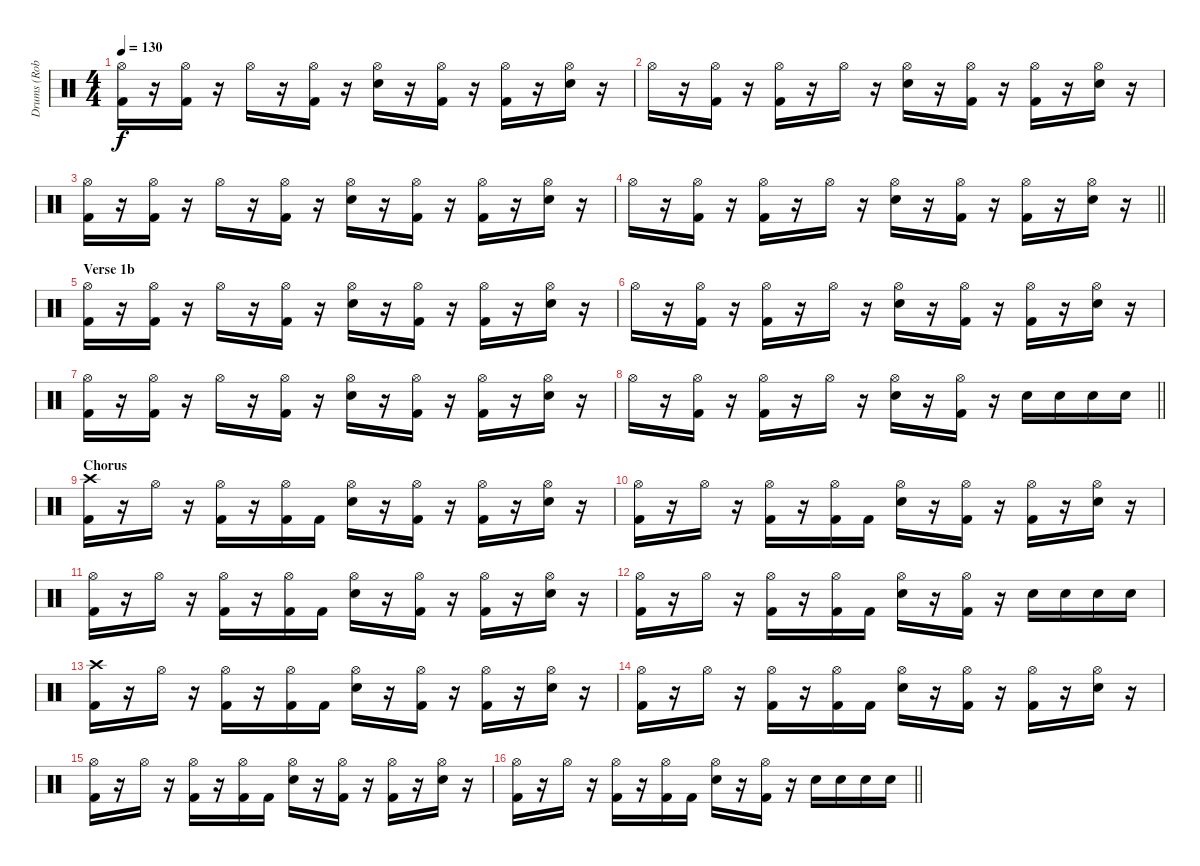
\track ("Drums (Rob)" "Drums (Rob") {instrument percussion}
\staff {score}
\articulation defaults
\ts (4 4)
\tempo 130
\clef neutral
\ks c
("Hi-Hat (open)" "Kick (hit) 2").16{dy f} r.16 ("Hi-Hat (open)" "Kick (hit) 2").16 r.16 "Hi-Hat (open)".16 r.16 ("Hi-Hat (open)" "Kick (hit) 2").16 r.16 ("Hi-Hat (open)" "Electric Snare (hit)").16 r.16 ("Hi-Hat (open)" "Kick (hit) 2").16 r.16 ("Hi-Hat (open)" "Kick (hit) 2").16 r.16 ("Hi-Hat (open)" "Electric Snare (hit)").16 r.16 |
"Hi-Hat (open)".16 r.16 ("Hi-Hat (open)" "Kick (hit) 2").16 r.16 ("Hi-Hat (open)" "Kick (hit) 2").16 r.16 "Hi-Hat (open)".16 r.16 ("Hi-Hat (open)" "Electric Snare (hit)").16 r.16 ("Hi-Hat (open)" "Kick (hit) 2").16 r.16 ("Hi-Hat (open)" "Kick (hit) 2").16 r.16 ("Hi-Hat (open)" "Electric Snare (hit)").16 r.16 |
("Hi-Hat (open)" "Kick (hit) 2").16 r.16 ("Hi-Hat (open)" "Kick (hit) 2").16 r.16 "Hi-Hat (open)".16 r.16 ("Hi-Hat (open)" "Kick (hit) 2").16 r.16 ("Hi-Hat (open)" "Electric Snare (hit)").16 r.16 ("Hi-Hat (open)" "Kick (hit) 2").16 r.16 ("Hi-Hat (open)" "Kick (hit) 2").16 r.16 ("Hi-Hat (open)" "Electric Snare (hit)").16 r.16 |
\barLineRight lightlight "Hi-Hat (open)".16
r.16 ("Hi-Hat (open)" "Kick (hit) 2").16 r.16 ("Hi-Hat (open)" "Kick (hit) 2").16 r.16 "Hi-Hat (open)".16 r.16 ("Hi-Hat (open)" "Electric Snare (hit)").16 r.16 ("Hi-Hat (open)" "Kick (hit) 2").16 r.16 ("Hi-Hat (open)" "Kick (hit) 2").16 r.16 ("Hi-Hat (open)" "Electric Snare (hit)").16 r.16 |
\section ("" "Verse 1b")
("Hi-Hat (open)" "Kick (hit) 2").16 r.16 ("Hi-Hat (open)" "Kick (hit) 2").16 r.16 "Hi-Hat (open)".16 r.16 ("Hi-Hat (open)" "Kick (hit) 2").16 r.16 ("Hi-Hat (open)" "Electric Snare (hit)").16 r.16 ("Hi-Hat (open)" "Kick (hit) 2").16 r.16 ("Hi-Hat (open)" "Kick (hit) 2").16 r.16 ("Hi-Hat (open)" "Electric Snare (hit)").16 r.16 |
"Hi-Hat (open)".16 r.16 ("Hi-Hat (open)" "Kick (hit) 2").16 r.16 ("Hi-Hat (open)" "Kick (hit) 2").16 r.16 "Hi-Hat (open)".16 r.16 ("Hi-Hat (open)" "Electric Snare (hit)").16 r.16 ("Hi-Hat (open)" "Kick (hit) 2").16 r.16 ("Hi-Hat (open)" "Kick (hit) 2").16 r.16 ("Hi-Hat (open)" "Electric Snare (hit)").16 r.16 |
("Hi-Hat (open)" "Kick (hit) 2").16 r.16 ("Hi-Hat (open)" "Kick (hit) 2").16 r.16 "Hi-Hat (open)".16 r.16 ("Hi-Hat (open)" "Kick (hit) 2").16 r.16 ("Hi-Hat (open)" "Electric Snare (hit)").16 r.16 ("Hi-Hat (open)" "Kick (hit) 2").16 r.16 ("Hi-Hat (open)" "Kick (hit) 2").16 r.16 ("Hi-Hat (open)" "Electric Snare (hit)").16 r.16 |
\barLineRight lightlight "Hi-Hat (open)".16
r.16 ("Hi-Hat (open)" "Kick (hit) 2").16 r.16 ("Hi-Hat (open)" "Kick (hit) 2").16 r.16 "Hi-Hat (open)".16 r.16 ("Hi-Hat (open)" "Electric Snare (hit)").16 r.16 ("Hi-Hat (open)" "Kick (hit) 2").16 r.16 "Electric Snare (hit)".16 "Electric Snare (hit)".16 "Electric Snare (hit)".16 "Electric Snare (hit)".16 |
\section ("" "Chorus")
("Crash high (hit)" "Kick (hit) 2").16 r.16 "Hi-Hat (open)".16 r.16 ("Hi-Hat (open)" "Kick (hit) 2").16 r.16 ("Hi-Hat (open)" "Kick (hit) 2").16 "Kick (hit) 2".16 ("Hi-Hat (open)" "Electric Snare (hit)").16 r.16 ("Hi-Hat (open)" "Kick (hit) 2").16 r.16 ("Hi-Hat (open)" "Kick (hit) 2").16 r.16 ("Hi-Hat (open)" "Electric Snare (hit)").16 r.16 |
("Hi-Hat (open)" "Kick (hit) 2").16 r.16 "Hi-Hat (open)".16 r.16 ("Hi-Hat (open)" "Kick (hit) 2").16 r.16 ("Hi-Hat (open)" "Kick (hit) 2").16 "Kick (hit) 2".16 ("Hi-Hat (open)" "Electric Snare (hit)").16 r.16 ("Hi-Hat (open)" "Kick (hit) 2").16 r.16 ("Hi-Hat (open)" "Kick (hit) 2").16 r.16 ("Hi-Hat (open)" "Electric Snare (hit)").16 r.16 |
("Hi-Hat (open)" "Kick (hit) 2").16 r.16 "Hi-Hat (open)".16 r.16 ("Hi-Hat (open)" "Kick (hit) 2").16 r.16 ("Hi-Hat (open)" "Kick (hit) 2").16 "Kick (hit) 2".16 ("Hi-Hat (open)" "Electric Snare (hit)").16 r.16 ("Hi-Hat (open)" "Kick (hit) 2").16 r.16 ("Hi-Hat (open)" "Kick (hit) 2").16 r.16 ("Hi-Hat (open)" "Electric Snare (hit)").16 r.16 |
("Hi-Hat (open)" "Kick (hit) 2").16 r.16 "Hi-Hat (open)".16 r.16 ("Hi-Hat (open)" "Kick (hit) 2").16 r.16 ("Hi-Hat (open)" "Kick (hit) 2").16 "Kick (hit) 2".16 ("Hi-Hat (open)" "Electric Snare (hit)").16 r.16 ("Hi-Hat (open)" "Kick (hit) 2").16 r.16 "Electric Snare (hit)".16 "Electric Snare (hit)".16 "Electric Snare (hit)".16 "Electric Snare (hit)".16 |
("Crash high (hit)" "Kick (hit) 2").16 r.16 "Hi-Hat (open)".16 r.16 ("Hi-Hat (open)" "Kick (hit) 2").16 r.16 ("Hi-Hat (open)" "Kick (hit) 2").16 "Kick (hit) 2".16 ("Hi-Hat (open)" "Electric Snare (hit)").16 r.16 ("Hi-Hat (open)" "Kick (hit) 2").16 r.16 ("Hi-Hat (open)" "Kick (hit) 2").16 r.16 ("Hi-Hat (open)" "Electric Snare (hit)").16 r.16 |
("Hi-Hat (open)" "Kick (hit) 2").16 r.16 "Hi-Hat (open)".16 r.16 ("Hi-Hat (open)" "Kick (hit) 2").16 r.16 ("Hi-Hat (open)" "Kick (hit) 2").16 "Kick (hit) 2".16 ("Hi-Hat (open)" "Electric Snare (hit)").16 r.16 ("Hi-Hat (open)" "Kick (hit) 2").16 r.16 ("Hi-Hat (open)" "Kick (hit) 2").16 r.16 ("Hi-Hat (open)" "Electric Snare (hit)").16 r.16 |
("Hi-Hat (open)" "Kick (hit) 2").16 r.16 "Hi-Hat (open)".16 r.16 ("Hi-Hat (open)" "Kick (hit) 2").16 r.16 ("Hi-Hat (open)" "Kick (hit) 2").16 "Kick (hit) 2".16 ("Hi-Hat (open)" "Electric Snare (hit)").16 r.16 ("Hi-Hat (open)" "Kick (hit) 2").16 r.16 ("Hi-Hat (open)" "Kick (hit) 2").16 r.16 ("Hi-Hat (open)" "Electric Snare (hit)").16 r.16 |
\barLineRight lightlight
("Hi-Hat (open)" "Kick (hit) 2").16 r.16 "Hi-Hat (open)".16 r.16 ("Hi-Hat (open)" "Kick (hit) 2").16 r.16 ("Hi-Hat (open)" "Kick (hit) 2").16 "Kick (hit) 2".16 ("Hi-Hat (open)" "Electric Snare (hit)").16 r.16 ("Hi-Hat (open)" "Kick (hit) 2").16 r.16 "Electric Snare (hit)".16 "Electric Snare (hit)".16 "Electric Snare (hit)".16 "Electric Snare (hit)".16
